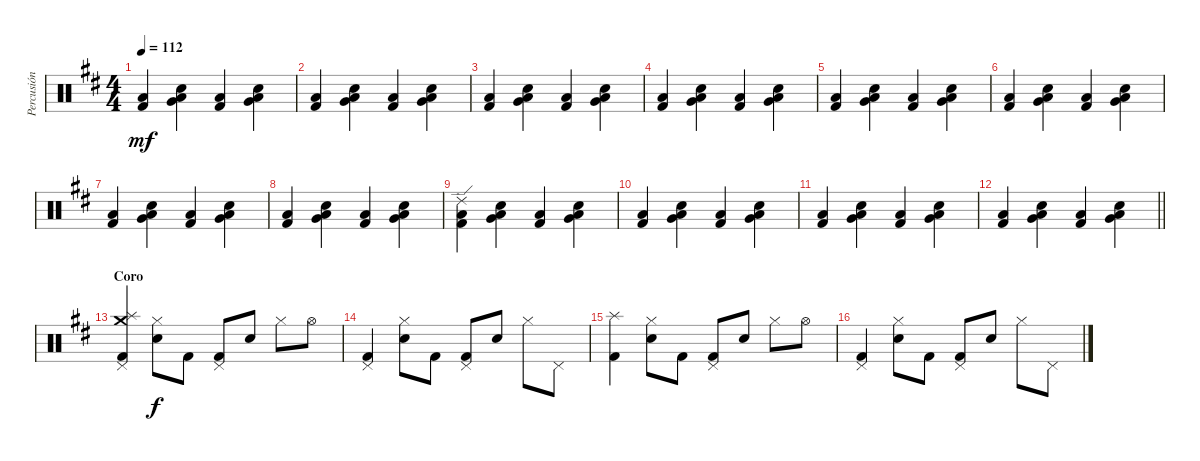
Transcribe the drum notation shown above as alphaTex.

\track ("Percusión" "Percusión") {instrument percussion}
\staff {score}
\articulation defaults
\ts (4 4)
\tempo 112
\clef neutral
\ks d
("Low Floor Tom (hit)" "Kick (hit) 2").4{dy mf} ("Very Low Tom (hit)" "Low Floor Tom (hit)" "Snare (hit) 2").4 ("Low Floor Tom (hit)" "Kick (hit) 2").4 ("Very Low Tom (hit)" "Low Floor Tom (hit)" "Snare (hit) 2").4 |
("Low Floor Tom (hit)" "Kick (hit) 2").4 ("Very Low Tom (hit)" "Low Floor Tom (hit)" "Snare (hit) 2").4 ("Low Floor Tom (hit)" "Kick (hit) 2").4 ("Very Low Tom (hit)" "Low Floor Tom (hit)" "Snare (hit) 2").4 |
("Low Floor Tom (hit)" "Kick (hit) 2").4 ("Very Low Tom (hit)" "Low Floor Tom (hit)" "Snare (hit) 2").4 ("Low Floor Tom (hit)" "Kick (hit) 2").4 ("Very Low Tom (hit)" "Low Floor Tom (hit)" "Snare (hit) 2").4 |
("Low Floor Tom (hit)" "Kick (hit) 2").4 ("Very Low Tom (hit)" "Low Floor Tom (hit)" "Snare (hit) 2").4 ("Low Floor Tom (hit)" "Kick (hit) 2").4 ("Very Low Tom (hit)" "Low Floor Tom (hit)" "Snare (hit) 2").4 |
("Low Floor Tom (hit)" "Kick (hit) 2").4 ("Very Low Tom (hit)" "Low Floor Tom (hit)" "Snare (hit) 2").4 ("Low Floor Tom (hit)" "Kick (hit) 2").4 ("Very Low Tom (hit)" "Low Floor Tom (hit)" "Snare (hit) 2").4 |
("Low Floor Tom (hit)" "Kick (hit) 2").4 ("Very Low Tom (hit)" "Low Floor Tom (hit)" "Snare (hit) 2").4 ("Low Floor Tom (hit)" "Kick (hit) 2").4 ("Very Low Tom (hit)" "Low Floor Tom (hit)" "Snare (hit) 2").4 |
("Low Floor Tom (hit)" "Kick (hit) 2").4 ("Very Low Tom (hit)" "Low Floor Tom (hit)" "Snare (hit) 2").4 ("Low Floor Tom (hit)" "Kick (hit) 2").4 ("Very Low Tom (hit)" "Low Floor Tom (hit)" "Snare (hit) 2").4 |
("Low Floor Tom (hit)" "Kick (hit) 2").4 ("Very Low Tom (hit)" "Low Floor Tom (hit)" "Snare (hit) 2").4 ("Low Floor Tom (hit)" "Kick (hit) 2").4 ("Very Low Tom (hit)" "Low Floor Tom (hit)" "Snare (hit) 2").4 |
("Ride (edge) 2" "Low Floor Tom (hit)" "Kick (hit) 2").4 ("Very Low Tom (hit)" "Low Floor Tom (hit)" "Snare (hit) 2").4 ("Low Floor Tom (hit)" "Kick (hit) 2").4 ("Very Low Tom (hit)" "Low Floor Tom (hit)" "Snare (hit) 2").4 |
("Low Floor Tom (hit)" "Kick (hit) 2").4 ("Very Low Tom (hit)" "Low Floor Tom (hit)" "Snare (hit) 2").4 ("Low Floor Tom (hit)" "Kick (hit) 2").4 ("Very Low Tom (hit)" "Low Floor Tom (hit)" "Snare (hit) 2").4 |
("Low Floor Tom (hit)" "Kick (hit) 2").4 ("Very Low Tom (hit)" "Low Floor Tom (hit)" "Snare (hit) 2").4 ("Low Floor Tom (hit)" "Kick (hit) 2").4 ("Very Low Tom (hit)" "Low Floor Tom (hit)" "Snare (hit) 2").4 |
\barLineRight lightlight
("Low Floor Tom (hit)" "Kick (hit) 2").4 ("Very Low Tom (hit)" "Low Floor Tom (hit)" "Snare (hit) 2").4 ("Low Floor Tom (hit)" "Kick (hit) 2").4 ("Very Low Tom (hit)" "Low Floor Tom (hit)" "Snare (hit) 2").4 |
\section ("" "Coro")
("Crash medium (hit)" "Splash (hit)" "Pedal Hi-Hat (hit)" "Kick (hit) 2").4 ("Hi-Hat (closed)" "Snare (hit) 2").8{dy f} "Kick (hit) 2".8 ("Pedal Hi-Hat (hit)" "Kick (hit) 2").8 "Snare (hit) 2".8 "Hi-Hat (closed)".8 "Hi-Hat (open)".8 |
("Pedal Hi-Hat (hit)" "Kick (hit) 2").4 ("Hi-Hat (closed)" "Snare (hit) 2").8 "Kick (hit) 2".8 ("Pedal Hi-Hat (hit)" "Kick (hit) 2").8 "Snare (hit) 2".8 "Hi-Hat (closed)".8 "Pedal Hi-Hat (hit)".8 |
("Splash (hit)" "Kick (hit) 2").4 ("Hi-Hat (closed)" "Snare (hit) 2").8 "Kick (hit) 2".8 ("Pedal Hi-Hat (hit)" "Kick (hit) 2").8 "Snare (hit) 2".8 "Hi-Hat (closed)".8 "Hi-Hat (open)".8 |
("Pedal Hi-Hat (hit)" "Kick (hit) 2").4 ("Hi-Hat (closed)" "Snare (hit) 2").8 "Kick (hit) 2".8 ("Pedal Hi-Hat (hit)" "Kick (hit) 2").8 "Snare (hit) 2".8 "Hi-Hat (closed)".8 "Pedal Hi-Hat (hit)".8
